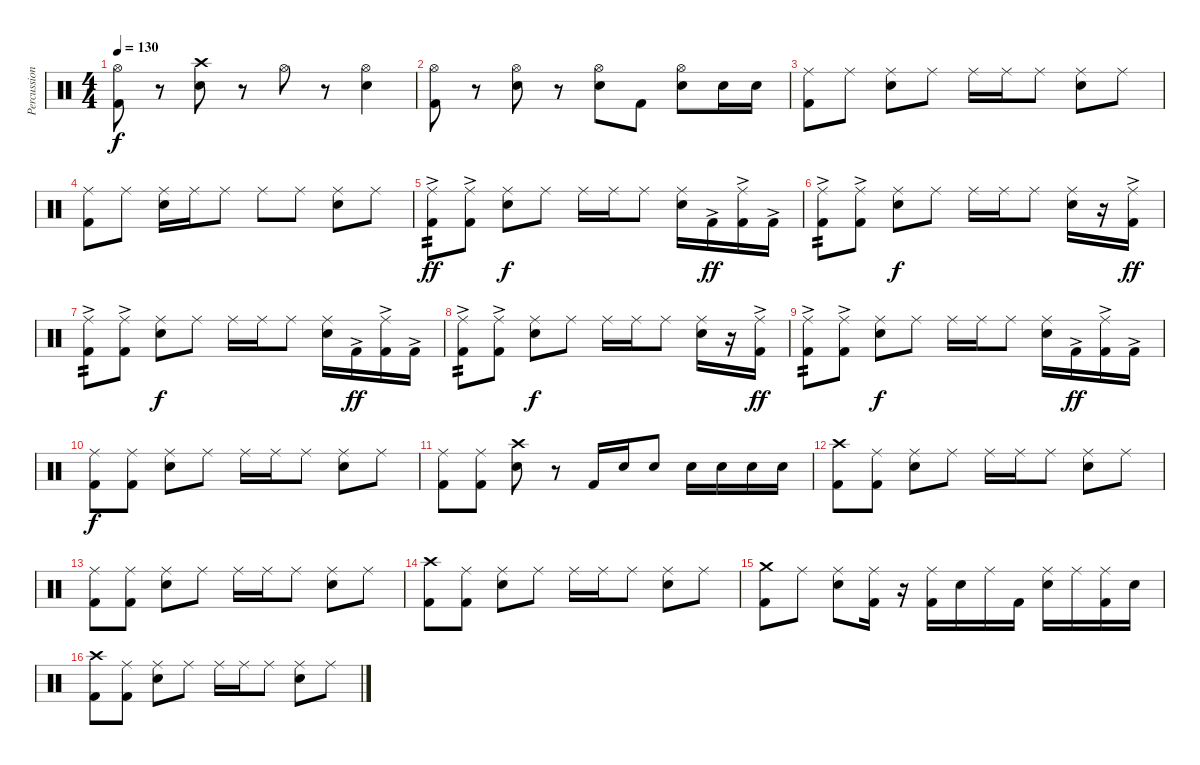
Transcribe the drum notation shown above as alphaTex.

\track ("Percussion" "Percussion") {instrument percussion}
\staff {score}
\articulation defaults
\ts (4 4)
\tempo 130
\clef neutral
\ks c
("Hi-Hat (open)" "Kick (hit) 2").8{dy f} r.8 ("Crash high (hit)" "Snare (hit) 2").8 r.8 "Hi-Hat (open)".8 r.8 ("Hi-Hat (open)" "Snare (hit) 2").4 |
("Hi-Hat (open)" "Kick (hit) 2").8 r.8 ("Hi-Hat (open)" "Snare (hit) 2").8 r.8 ("Hi-Hat (open)" "Snare (hit) 2").8 "Kick (hit) 2".8 ("Hi-Hat (open)" "Snare (hit) 2").8 "Snare (hit) 2".16 "Snare (hit) 2".16 |
("Kick (hit) 2" "Ride (middle)").8 "Ride (middle)".8 ("Electric Snare (hit)" "Ride (middle)").8 "Ride (middle)".8 "Ride (middle)".16 "Ride (middle)".16 "Ride (middle)".8 ("Electric Snare (hit)" "Ride (middle)").8 "Ride (middle)".8 |
("Kick (hit) 2" "Ride (middle)").8 "Ride (middle)".8 ("Electric Snare (hit)" "Ride (middle)").16 "Ride (middle)".16 "Ride (middle)".8 "Ride (middle)".8 "Ride (middle)".8 ("Electric Snare (hit)" "Ride (middle)").8 "Ride (middle)".8 |
("Kick (hit) 2"{ac} "Ride (middle)").8{tp 2 dy ff} ("Kick (hit) 2"{ac} "Ride (middle)").8 ("Electric Snare (hit)" "Ride (middle)").8{dy f} "Ride (middle)".8 "Ride (middle)".16 "Ride (middle)".16 "Ride (middle)".8 ("Electric Snare (hit)" "Ride (middle)").16 "Kick (hit) 2"{ac}.16{dy ff} ("Kick (hit) 2"{ac} "Ride (middle)").16 "Kick (hit) 2"{ac}.16 |
("Kick (hit) 2"{ac} "Ride (middle)").8{tp 2} ("Kick (hit) 2"{ac} "Ride (middle)").8 ("Electric Snare (hit)" "Ride (middle)").8{dy f} "Ride (middle)".8 "Ride (middle)".16 "Ride (middle)".16 "Ride (middle)".8 ("Electric Snare (hit)" "Ride (middle)").16 r.16 ("Kick (hit) 2"{ac} "Ride (middle)").16{dy ff} |
("Kick (hit) 2"{ac} "Ride (middle)").8{tp 2} ("Kick (hit) 2"{ac} "Ride (middle)").8 ("Electric Snare (hit)" "Ride (middle)").8{dy f} "Ride (middle)".8 "Ride (middle)".16 "Ride (middle)".16 "Ride (middle)".8 ("Electric Snare (hit)" "Ride (middle)").16 "Kick (hit) 2"{ac}.16{dy ff} ("Kick (hit) 2"{ac} "Ride (middle)").16 "Kick (hit) 2"{ac}.16 |
("Kick (hit) 2"{ac} "Ride (middle)").8{tp 2} ("Kick (hit) 2"{ac} "Ride (middle)").8 ("Electric Snare (hit)" "Ride (middle)").8{dy f} "Ride (middle)".8 "Ride (middle)".16 "Ride (middle)".16 "Ride (middle)".8 ("Electric Snare (hit)" "Ride (middle)").16 r.16 ("Kick (hit) 2"{ac} "Ride (middle)").16{dy ff} |
("Kick (hit) 2"{ac} "Ride (middle)").8{tp 2} ("Kick (hit) 2"{ac} "Ride (middle)").8 ("Electric Snare (hit)" "Ride (middle)").8{dy f} "Ride (middle)".8 "Ride (middle)".16 "Ride (middle)".16 "Ride (middle)".8 ("Electric Snare (hit)" "Ride (middle)").16 "Kick (hit) 2"{ac}.16{dy ff} ("Kick (hit) 2"{ac} "Ride (middle)").16 "Kick (hit) 2"{ac}.16 |
("Kick (hit) 2" "Ride (middle)").8{dy f} ("Kick (hit) 2" "Ride (middle)").8 ("Electric Snare (hit)" "Ride (middle)").8 "Ride (middle)".8 "Ride (middle)".16 "Ride (middle)".16 "Ride (middle)".8 ("Electric Snare (hit)" "Ride (middle)").8 "Ride (middle)".8 |
("Kick (hit) 2" "Ride (middle)").8 ("Kick (hit) 2" "Ride (middle)").8 ("Electric Snare (hit)" "Crash high (hit)").8 r.8 "Kick (hit) 2".16 "Electric Snare (hit)".16 "Electric Snare (hit)".8 "Electric Snare (hit)".16 "Electric Snare (hit)".16 "Electric Snare (hit)".16 "Electric Snare (hit)".16 |
("Kick (hit) 2" "Crash high (hit)").8 ("Kick (hit) 2" "Ride (middle)").8 ("Electric Snare (hit)" "Ride (middle)").8 "Ride (middle)".8 "Ride (middle)".16 "Ride (middle)".16 "Ride (middle)".8 ("Electric Snare (hit)" "Ride (middle)").8 "Ride (middle)".8 |
("Kick (hit) 2" "Ride (middle)").8 ("Kick (hit) 2" "Ride (middle)").8 ("Electric Snare (hit)" "Ride (middle)").8 "Ride (middle)".8 "Ride (middle)".16 "Ride (middle)".16 "Ride (middle)".8 ("Electric Snare (hit)" "Ride (middle)").8 "Ride (middle)".8 |
("Kick (hit) 2" "Crash high (hit)").8 ("Kick (hit) 2" "Ride (middle)").8 ("Electric Snare (hit)" "Ride (middle)").8 "Ride (middle)".8 "Ride (middle)".16 "Ride (middle)".16 "Ride (middle)".8 ("Electric Snare (hit)" "Ride (middle)").8 "Ride (middle)".8 |
("Kick (hit) 2" "Crash medium (hit)").8 "Ride (middle)".8 ("Electric Snare (hit)" "Ride (middle)").8 ("Kick (hit) 2" "Ride (middle)").16 r.16 ("Kick (hit) 2" "Ride (middle)").16 "Electric Snare (hit)".16 "Ride (middle)".16 "Kick (hit) 2".16 ("Electric Snare (hit)" "Ride (middle)").16 "Ride (middle)".16 ("Kick (hit) 2" "Ride (middle)").16 "Electric Snare (hit)".16 |
("Kick (hit) 2" "Crash high (hit)").8 ("Kick (hit) 2" "Ride (middle)").8 ("Electric Snare (hit)" "Ride (middle)").8 "Ride (middle)".8 "Ride (middle)".16 "Ride (middle)".16 "Ride (middle)".8 ("Electric Snare (hit)" "Ride (middle)").8 "Ride (middle)".8
